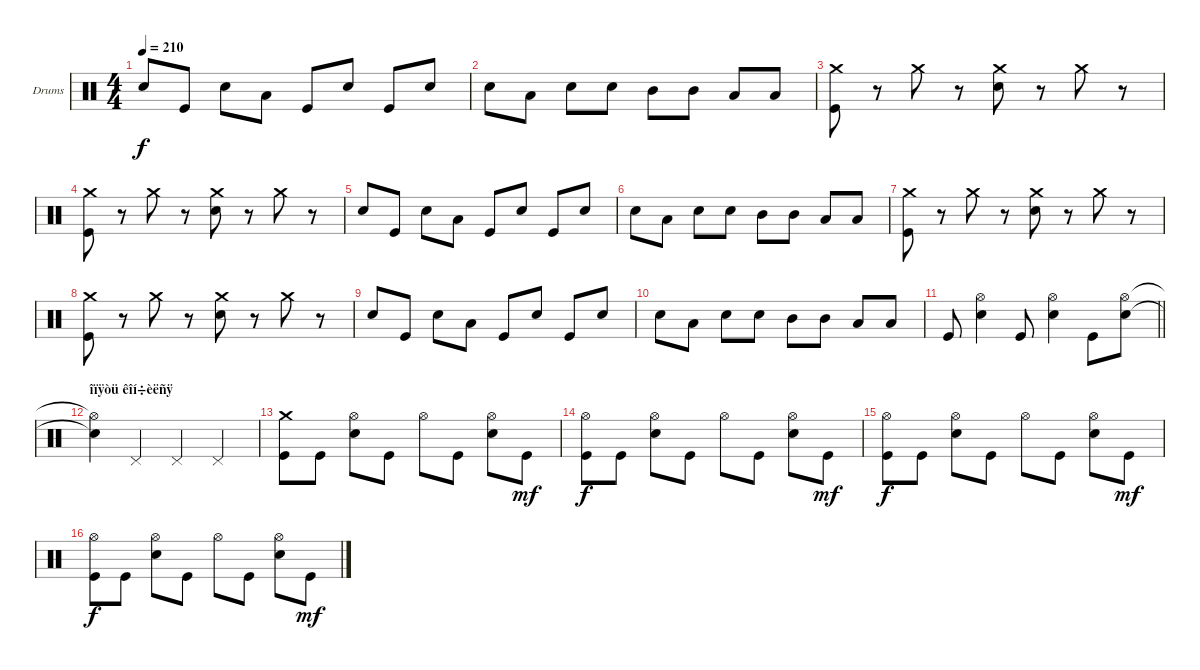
\bracketExtendMode groupsimilarinstruments
\firstSystemTrackNameOrientation horizontal
\otherSystemsTrackNameOrientation horizontal
\track ("Drumkit" "Drums") {instrument percussion}
\staff {score}
\articulation defaults
\ts (4 4)
\tempo 210
\clef neutral
\ks c "Snare (hit) 2".8{dy f} "Kick (hit)".8 "Snare (hit) 2".8 "Low Tom (hit)".8 "Kick (hit)".8 "Snare (hit) 2".8 "Kick (hit)".8 "Snare (hit) 2".8
|
"Snare (hit) 2".8 "Low Tom (hit)".8 "Snare (hit) 2".8 "Snare (hit) 2".8 "Mid Tom (hit)".8 "Mid Tom (hit)".8 "Low Tom (hit)".8 "Low Tom (hit)".8 |
("Crash medium (hit)" "Kick (hit)").8 r.8 "Crash medium (hit)".8 r.8 ("Crash medium (hit)" "Snare (hit) 2").8 r.8 "Crash medium (hit)".8 r.8 |
("Crash medium (hit)" "Kick (hit)").8 r.8 "Crash medium (hit)".8 r.8 ("Crash medium (hit)" "Snare (hit) 2").8 r.8 "Crash medium (hit)".8 r.8 |
"Snare (hit) 2".8 "Kick (hit)".8 "Snare (hit) 2".8 "Low Tom (hit)".8 "Kick (hit)".8 "Snare (hit) 2".8 "Kick (hit)".8 "Snare (hit) 2".8 |
"Snare (hit) 2".8 "Low Tom (hit)".8 "Snare (hit) 2".8 "Snare (hit) 2".8 "Mid Tom (hit)".8 "Mid Tom (hit)".8 "Low Tom (hit)".8 "Low Tom (hit)".8 |
("Crash medium (hit)" "Kick (hit)").8 r.8 "Crash medium (hit)".8 r.8 ("Crash medium (hit)" "Snare (hit) 2").8 r.8 "Crash medium (hit)".8 r.8 |
("Crash medium (hit)" "Kick (hit)").8 r.8 "Crash medium (hit)".8 r.8 ("Crash medium (hit)" "Snare (hit) 2").8 r.8 "Crash medium (hit)".8 r.8 |
"Snare (hit) 2".8 "Kick (hit)".8 "Snare (hit) 2".8 "Low Tom (hit)".8 "Kick (hit)".8 "Snare (hit) 2".8 "Kick (hit)".8 "Snare (hit) 2".8 |
"Snare (hit) 2".8 "Low Tom (hit)".8 "Snare (hit) 2".8 "Snare (hit) 2".8 "Mid Tom (hit)".8 "Mid Tom (hit)".8 "Low Tom (hit)".8 "Low Tom (hit)".8 |
\barLineRight lightlight "Kick (hit)".8
("Hi-Hat (open)" "Snare (hit) 2").4 "Kick (hit)".8 ("Hi-Hat (open)" "Snare (hit) 2").4 "Kick (hit)".8 ("Hi-Hat (open)" "Snare (hit) 2").8 |
\section ("" "îïÿòü êîí÷èëñÿ")
("Hi-Hat (open)"{t} "Snare (hit) 2"{t}).4 "Pedal Hi-Hat (hit)".4 "Pedal Hi-Hat (hit)".4 "Pedal Hi-Hat (hit)".4 |
("Crash medium (hit)" "Kick (hit)").8 "Kick (hit)".8 ("Hi-Hat (open)" "Snare (hit) 2").8 "Kick (hit)".8 "Hi-Hat (open)".8 "Kick (hit)".8 ("Hi-Hat (open)" "Snare (hit) 2").8 "Kick (hit)".8{dy mf} |
("Hi-Hat (open)" "Kick (hit)").8{dy f} "Kick (hit)".8 ("Hi-Hat (open)" "Snare (hit) 2").8 "Kick (hit)".8 "Hi-Hat (open)".8 "Kick (hit)".8 ("Hi-Hat (open)" "Snare (hit) 2").8 "Kick (hit)".8{dy mf} |
("Hi-Hat (open)" "Kick (hit)").8{dy f} "Kick (hit)".8 ("Hi-Hat (open)" "Snare (hit) 2").8 "Kick (hit)".8 "Hi-Hat (open)".8 "Kick (hit)".8 ("Hi-Hat (open)" "Snare (hit) 2").8 "Kick (hit)".8{dy mf} |
("Hi-Hat (open)" "Kick (hit)").8{dy f} "Kick (hit)".8 ("Hi-Hat (open)" "Snare (hit) 2").8 "Kick (hit)".8 "Hi-Hat (open)".8 "Kick (hit)".8 ("Hi-Hat (open)" "Snare (hit) 2").8 "Kick (hit)".8{dy mf}
